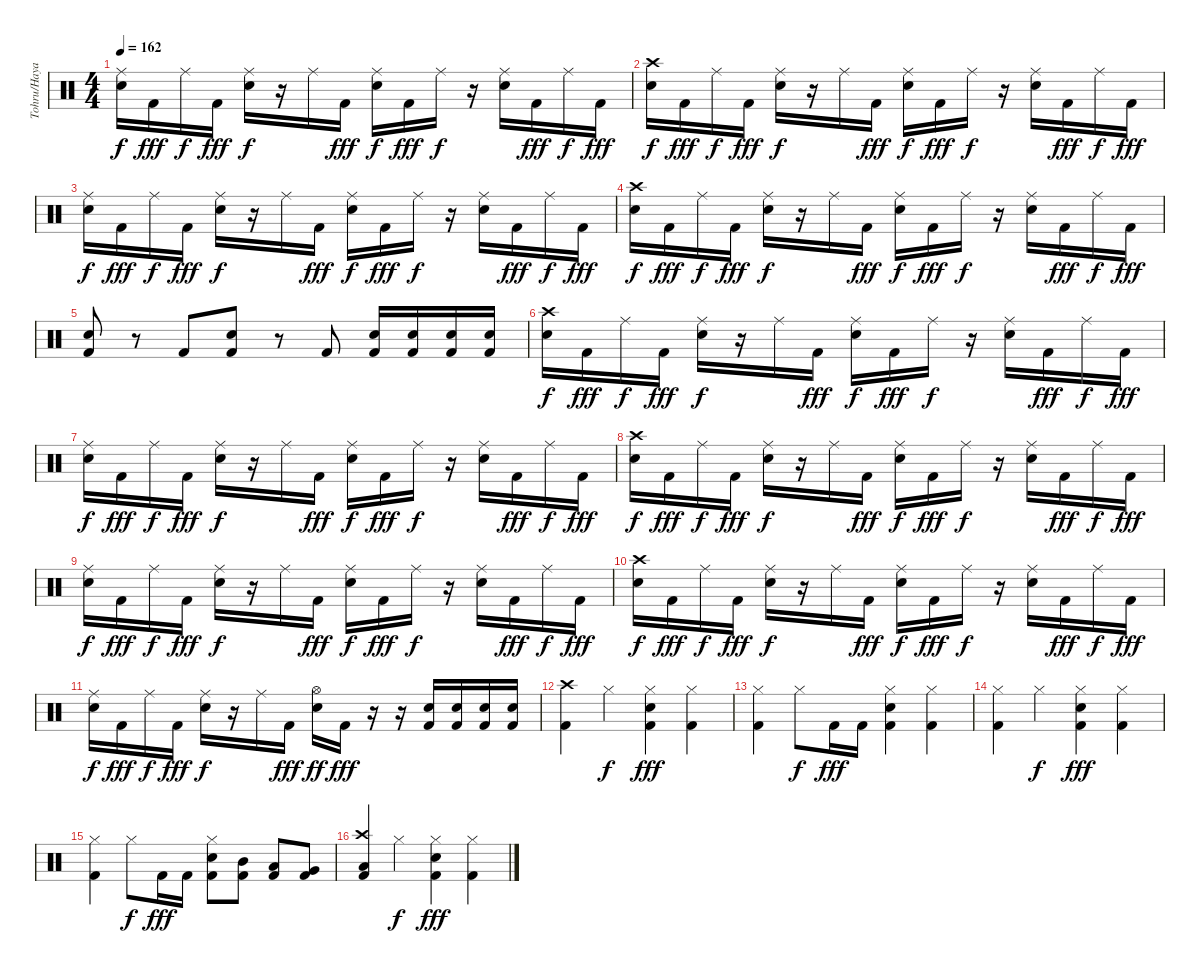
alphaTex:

\track ("Tohru/Hayato" "Tohru/Haya") {instrument percussion}
\staff {score}
\articulation defaults
\ts (4 4)
\tempo 162
\clef neutral
\ks c
("Ride (middle)" "Electric Snare (hit)").16{dy f} "Kick (hit) 2".16{dy fff} "Ride (middle)".16{dy f} "Kick (hit) 2".16{dy fff} ("Ride (middle)" "Electric Snare (hit)").16{dy f} r.16 "Ride (middle)".16 "Kick (hit) 2".16{dy fff} ("Ride (middle)" "Electric Snare (hit)").16{dy f} "Kick (hit) 2".16{dy fff} "Ride (middle)".16{dy f} r.16 ("Ride (middle)" "Electric Snare (hit)").16 "Kick (hit) 2".16{dy fff} "Ride (middle)".16{dy f} "Kick (hit) 2".16{dy fff} |
("Crash high (hit)" "Electric Snare (hit)").16{dy f} "Kick (hit) 2".16{dy fff} "Ride (middle)".16{dy f} "Kick (hit) 2".16{dy fff} ("Ride (middle)" "Electric Snare (hit)").16{dy f} r.16 "Ride (middle)".16 "Kick (hit) 2".16{dy fff} ("Ride (middle)" "Electric Snare (hit)").16{dy f} "Kick (hit) 2".16{dy fff} "Ride (middle)".16{dy f} r.16 ("Ride (middle)" "Electric Snare (hit)").16 "Kick (hit) 2".16{dy fff} "Ride (middle)".16{dy f} "Kick (hit) 2".16{dy fff} |
("Ride (middle)" "Electric Snare (hit)").16{dy f} "Kick (hit) 2".16{dy fff} "Ride (middle)".16{dy f} "Kick (hit) 2".16{dy fff} ("Ride (middle)" "Electric Snare (hit)").16{dy f} r.16 "Ride (middle)".16 "Kick (hit) 2".16{dy fff} ("Ride (middle)" "Electric Snare (hit)").16{dy f} "Kick (hit) 2".16{dy fff} "Ride (middle)".16{dy f} r.16 ("Ride (middle)" "Electric Snare (hit)").16 "Kick (hit) 2".16{dy fff} "Ride (middle)".16{dy f} "Kick (hit) 2".16{dy fff} |
("Crash high (hit)" "Electric Snare (hit)").16{dy f} "Kick (hit) 2".16{dy fff} "Ride (middle)".16{dy f} "Kick (hit) 2".16{dy fff} ("Ride (middle)" "Electric Snare (hit)").16{dy f} r.16 "Ride (middle)".16 "Kick (hit) 2".16{dy fff} ("Ride (middle)" "Electric Snare (hit)").16{dy f} "Kick (hit) 2".16{dy fff} "Ride (middle)".16{dy f} r.16 ("Ride (middle)" "Electric Snare (hit)").16 "Kick (hit) 2".16{dy fff} "Ride (middle)".16{dy f} "Kick (hit) 2".16{dy fff} |
("Electric Snare (hit)" "Kick (hit) 2").8 r.8 "Kick (hit) 2".8 ("Electric Snare (hit)" "Kick (hit) 2").8 r.8 "Kick (hit) 2".8 ("Electric Snare (hit)" "Kick (hit) 2").16 ("Electric Snare (hit)" "Kick (hit) 2").16 ("Electric Snare (hit)" "Kick (hit) 2").16 ("Electric Snare (hit)" "Kick (hit) 2").16 |
("Crash high (hit)" "Electric Snare (hit)").16{dy f} "Kick (hit) 2".16{dy fff} "Ride (middle)".16{dy f} "Kick (hit) 2".16{dy fff} ("Ride (middle)" "Electric Snare (hit)").16{dy f} r.16 "Ride (middle)".16 "Kick (hit) 2".16{dy fff} ("Ride (middle)" "Electric Snare (hit)").16{dy f} "Kick (hit) 2".16{dy fff} "Ride (middle)".16{dy f} r.16 ("Ride (middle)" "Electric Snare (hit)").16 "Kick (hit) 2".16{dy fff} "Ride (middle)".16{dy f} "Kick (hit) 2".16{dy fff} |
("Ride (middle)" "Electric Snare (hit)").16{dy f} "Kick (hit) 2".16{dy fff} "Ride (middle)".16{dy f} "Kick (hit) 2".16{dy fff} ("Ride (middle)" "Electric Snare (hit)").16{dy f} r.16 "Ride (middle)".16 "Kick (hit) 2".16{dy fff} ("Ride (middle)" "Electric Snare (hit)").16{dy f} "Kick (hit) 2".16{dy fff} "Ride (middle)".16{dy f} r.16 ("Ride (middle)" "Electric Snare (hit)").16 "Kick (hit) 2".16{dy fff} "Ride (middle)".16{dy f} "Kick (hit) 2".16{dy fff} |
("Crash high (hit)" "Electric Snare (hit)").16{dy f} "Kick (hit) 2".16{dy fff} "Ride (middle)".16{dy f} "Kick (hit) 2".16{dy fff} ("Ride (middle)" "Electric Snare (hit)").16{dy f} r.16 "Ride (middle)".16 "Kick (hit) 2".16{dy fff} ("Ride (middle)" "Electric Snare (hit)").16{dy f} "Kick (hit) 2".16{dy fff} "Ride (middle)".16{dy f} r.16 ("Ride (middle)" "Electric Snare (hit)").16 "Kick (hit) 2".16{dy fff} "Ride (middle)".16{dy f} "Kick (hit) 2".16{dy fff} |
("Ride (middle)" "Electric Snare (hit)").16{dy f} "Kick (hit) 2".16{dy fff} "Ride (middle)".16{dy f} "Kick (hit) 2".16{dy fff} ("Ride (middle)" "Electric Snare (hit)").16{dy f} r.16 "Ride (middle)".16 "Kick (hit) 2".16{dy fff} ("Ride (middle)" "Electric Snare (hit)").16{dy f} "Kick (hit) 2".16{dy fff} "Ride (middle)".16{dy f} r.16 ("Ride (middle)" "Electric Snare (hit)").16 "Kick (hit) 2".16{dy fff} "Ride (middle)".16{dy f} "Kick (hit) 2".16{dy fff} |
("Crash high (hit)" "Electric Snare (hit)").16{dy f} "Kick (hit) 2".16{dy fff} "Ride (middle)".16{dy f} "Kick (hit) 2".16{dy fff} ("Ride (middle)" "Electric Snare (hit)").16{dy f} r.16 "Ride (middle)".16 "Kick (hit) 2".16{dy fff} ("Ride (middle)" "Electric Snare (hit)").16{dy f} "Kick (hit) 2".16{dy fff} "Ride (middle)".16{dy f} r.16 ("Ride (middle)" "Electric Snare (hit)").16 "Kick (hit) 2".16{dy fff} "Ride (middle)".16{dy f} "Kick (hit) 2".16{dy fff} |
("Ride (middle)" "Electric Snare (hit)").16{dy f} "Kick (hit) 2".16{dy fff} "Ride (middle)".16{dy f} "Kick (hit) 2".16{dy fff} ("Ride (middle)" "Electric Snare (hit)").16{dy f} r.16 "Ride (middle)".16 "Kick (hit) 2".16{dy fff} ("Hi-Hat (open)" "Electric Snare (hit)").16{dy ff} "Kick (hit) 2".16{dy fff} r.16 r.16 ("Electric Snare (hit)" "Kick (hit) 2").16 ("Electric Snare (hit)" "Kick (hit) 2").16 ("Electric Snare (hit)" "Kick (hit) 2").16 ("Electric Snare (hit)" "Kick (hit) 2").16 |
("Crash high (hit)" "Kick (hit) 2").4 "Hi-Hat (closed)".4{dy f} ("Hi-Hat (closed)" "Electric Snare (hit)" "Kick (hit) 2").4{dy fff} ("Hi-Hat (closed)" "Kick (hit) 2").4 |
("Hi-Hat (closed)" "Kick (hit) 2").4 "Hi-Hat (closed)".8{dy f} "Kick (hit) 2".16{dy fff} "Kick (hit) 2".16 ("Hi-Hat (closed)" "Electric Snare (hit)" "Kick (hit) 2").4 ("Hi-Hat (closed)" "Kick (hit) 2").4 |
("Hi-Hat (closed)" "Kick (hit) 2").4 "Hi-Hat (closed)".4{dy f} ("Hi-Hat (closed)" "Electric Snare (hit)" "Kick (hit) 2").4{dy fff} ("Hi-Hat (closed)" "Kick (hit) 2").4 |
("Hi-Hat (closed)" "Kick (hit) 2").4 "Hi-Hat (closed)".8{dy f} "Kick (hit) 2".16{dy fff} "Kick (hit) 2".16 ("Hi-Hat (closed)" "Electric Snare (hit)" "Kick (hit) 2").8 ("Mid Tom (hit)" "Kick (hit) 2").8 ("Low Tom (hit)" "Kick (hit) 2").8 ("Very Low Tom (hit)" "Kick (hit) 2").8 |
("Crash high (hit)" "Low Floor Tom (hit)" "Kick (hit) 2").4 "Hi-Hat (closed)".4{dy f} ("Hi-Hat (closed)" "Electric Snare (hit)" "Kick (hit) 2").4{dy fff} ("Hi-Hat (closed)" "Kick (hit) 2").4
